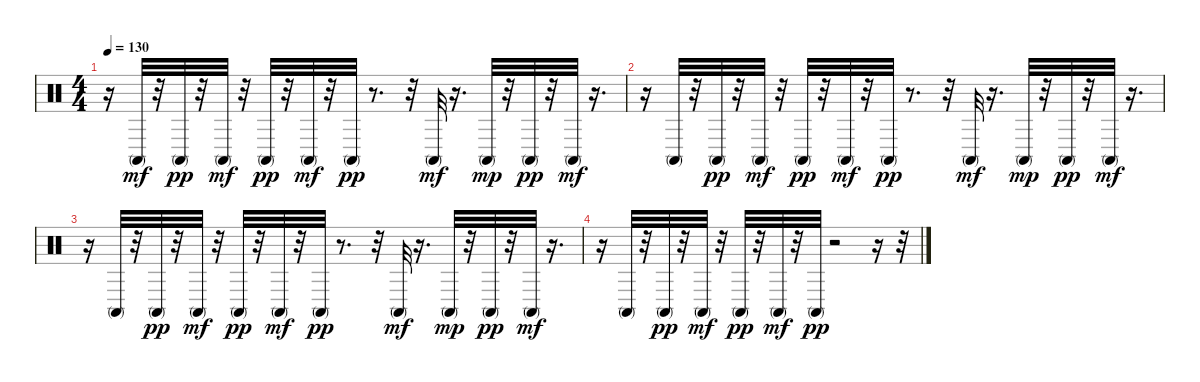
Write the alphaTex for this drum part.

\track "" {instrument percussion}
\staff {score}
\articulation defaults
\ts (4 4)
\tempo 130
\clef neutral
\ks c
r.16{dy mf} "Conga high (mute)".32 r.32 "Conga high (mute)".32{dy pp} r.32 "Conga high (mute)".32{dy mf} r.32 "Conga high (mute)".32{dy pp} r.32 "Conga high (mute)".32{dy mf} r.32 "Conga high (mute)".32{dy pp} r.8{d} r.32 "Conga high (mute)".32{dy mf} r.16{d} "Conga high (mute)".32{dy mp} r.32 "Conga high (mute)".32{dy pp} r.32 "Conga high (mute)".32{dy mf} r.16{d} |
r.16 "Conga high (mute)".32 r.32 "Conga high (mute)".32{dy pp} r.32 "Conga high (mute)".32{dy mf} r.32 "Conga high (mute)".32{dy pp} r.32 "Conga high (mute)".32{dy mf} r.32 "Conga high (mute)".32{dy pp} r.8{d} r.32 "Conga high (mute)".32{dy mf} r.16{d} "Conga high (mute)".32{dy mp} r.32 "Conga high (mute)".32{dy pp} r.32 "Conga high (mute)".32{dy mf} r.16{d} |
r.16 "Conga high (mute)".32 r.32 "Conga high (mute)".32{dy pp} r.32 "Conga high (mute)".32{dy mf} r.32 "Conga high (mute)".32{dy pp} r.32 "Conga high (mute)".32{dy mf} r.32 "Conga high (mute)".32{dy pp} r.8{d} r.32 "Conga high (mute)".32{dy mf} r.16{d} "Conga high (mute)".32{dy mp} r.32 "Conga high (mute)".32{dy pp} r.32 "Conga high (mute)".32{dy mf} r.16{d} |
r.16 "Conga high (mute)".32 r.32 "Conga high (mute)".32{dy pp} r.32 "Conga high (mute)".32{dy mf} r.32 "Conga high (mute)".32{dy pp} r.32 "Conga high (mute)".32{dy mf} r.32 "Conga high (mute)".32{dy pp} r.2 r.16 r.32
